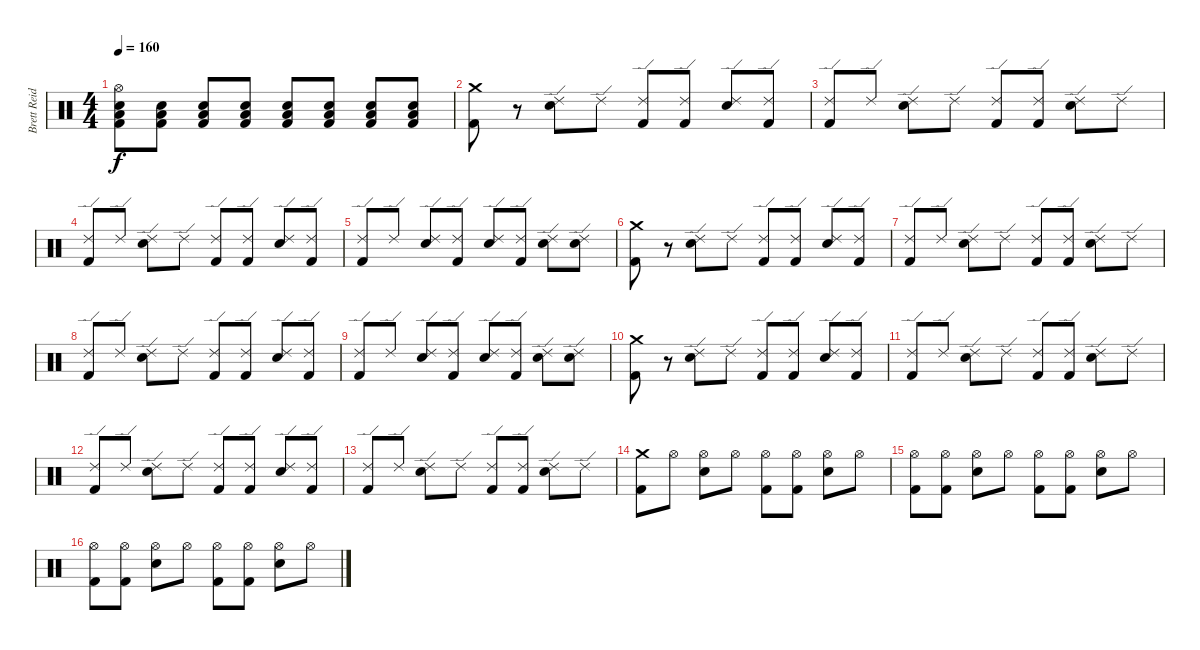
\track ("Brett Reid" "Brett Reid") {instrument percussion}
\staff {score}
\articulation defaults
\ts (4 4)
\tempo 160
\clef neutral
\ks c
("Hi-Hat (open)" "Low Floor Tom (hit)" "Snare (hit) 2" "Kick (hit) 2").8{dy f} ("Low Floor Tom (hit)" "Snare (hit) 2" "Kick (hit) 2").8 ("Low Floor Tom (hit)" "Snare (hit) 2" "Kick (hit) 2").8 ("Low Floor Tom (hit)" "Snare (hit) 2" "Kick (hit) 2").8 ("Low Floor Tom (hit)" "Snare (hit) 2" "Kick (hit) 2").8 ("Low Floor Tom (hit)" "Snare (hit) 2" "Kick (hit) 2").8 ("Low Floor Tom (hit)" "Snare (hit) 2" "Kick (hit) 2").8 ("Low Floor Tom (hit)" "Snare (hit) 2" "Kick (hit) 2").8 |
("Crash medium (hit)" "Kick (hit) 2").8 r.8 ("Ride (edge) 2" "Snare (hit) 2").8 "Ride (edge) 2".8 ("Ride (edge) 2" "Kick (hit) 2").8 ("Ride (edge) 2" "Kick (hit) 2").8 ("Ride (edge) 2" "Snare (hit) 2").8 ("Ride (edge) 2" "Kick (hit) 2").8 |
("Ride (edge) 2" "Kick (hit) 2").8 "Ride (edge) 2".8 ("Ride (edge) 2" "Snare (hit) 2").8 "Ride (edge) 2".8 ("Ride (edge) 2" "Kick (hit) 2").8 ("Ride (edge) 2" "Kick (hit) 2").8 ("Ride (edge) 2" "Snare (hit) 2").8 "Ride (edge) 2".8 |
("Ride (edge) 2" "Kick (hit) 2").8 "Ride (edge) 2".8 ("Ride (edge) 2" "Snare (hit) 2").8 "Ride (edge) 2".8 ("Ride (edge) 2" "Kick (hit) 2").8 ("Ride (edge) 2" "Kick (hit) 2").8 ("Ride (edge) 2" "Snare (hit) 2").8 ("Ride (edge) 2" "Kick (hit) 2").8 |
("Ride (edge) 2" "Kick (hit) 2").8 "Ride (edge) 2".8 ("Ride (edge) 2" "Snare (hit) 2").8 ("Ride (edge) 2" "Kick (hit) 2").8 ("Ride (edge) 2" "Snare (hit) 2").8 ("Ride (edge) 2" "Kick (hit) 2").8 ("Ride (edge) 2" "Snare (hit) 2").8 ("Ride (edge) 2" "Snare (hit) 2").8 |
("Crash medium (hit)" "Kick (hit) 2").8 r.8 ("Ride (edge) 2" "Snare (hit) 2").8 "Ride (edge) 2".8 ("Ride (edge) 2" "Kick (hit) 2").8 ("Ride (edge) 2" "Kick (hit) 2").8 ("Ride (edge) 2" "Snare (hit) 2").8 ("Ride (edge) 2" "Kick (hit) 2").8 |
("Ride (edge) 2" "Kick (hit) 2").8 "Ride (edge) 2".8 ("Ride (edge) 2" "Snare (hit) 2").8 "Ride (edge) 2".8 ("Ride (edge) 2" "Kick (hit) 2").8 ("Ride (edge) 2" "Kick (hit) 2").8 ("Ride (edge) 2" "Snare (hit) 2").8 "Ride (edge) 2".8 |
("Ride (edge) 2" "Kick (hit) 2").8 "Ride (edge) 2".8 ("Ride (edge) 2" "Snare (hit) 2").8 "Ride (edge) 2".8 ("Ride (edge) 2" "Kick (hit) 2").8 ("Ride (edge) 2" "Kick (hit) 2").8 ("Ride (edge) 2" "Snare (hit) 2").8 ("Ride (edge) 2" "Kick (hit) 2").8 |
("Ride (edge) 2" "Kick (hit) 2").8 "Ride (edge) 2".8 ("Ride (edge) 2" "Snare (hit) 2").8 ("Ride (edge) 2" "Kick (hit) 2").8 ("Ride (edge) 2" "Snare (hit) 2").8 ("Ride (edge) 2" "Kick (hit) 2").8 ("Ride (edge) 2" "Snare (hit) 2").8 ("Ride (edge) 2" "Snare (hit) 2").8 |
("Crash medium (hit)" "Kick (hit) 2").8 r.8 ("Ride (edge) 2" "Snare (hit) 2").8 "Ride (edge) 2".8 ("Ride (edge) 2" "Kick (hit) 2").8 ("Ride (edge) 2" "Kick (hit) 2").8 ("Ride (edge) 2" "Snare (hit) 2").8 ("Ride (edge) 2" "Kick (hit) 2").8 |
("Ride (edge) 2" "Kick (hit) 2").8 "Ride (edge) 2".8 ("Ride (edge) 2" "Snare (hit) 2").8 "Ride (edge) 2".8 ("Ride (edge) 2" "Kick (hit) 2").8 ("Ride (edge) 2" "Kick (hit) 2").8 ("Ride (edge) 2" "Snare (hit) 2").8 "Ride (edge) 2".8 |
("Ride (edge) 2" "Kick (hit) 2").8 "Ride (edge) 2".8 ("Ride (edge) 2" "Snare (hit) 2").8 "Ride (edge) 2".8 ("Ride (edge) 2" "Kick (hit) 2").8 ("Ride (edge) 2" "Kick (hit) 2").8 ("Ride (edge) 2" "Snare (hit) 2").8 ("Ride (edge) 2" "Kick (hit) 2").8 |
("Ride (edge) 2" "Kick (hit) 2").8 "Ride (edge) 2".8 ("Ride (edge) 2" "Snare (hit) 2").8 "Ride (edge) 2".8 ("Ride (edge) 2" "Kick (hit) 2").8 ("Ride (edge) 2" "Kick (hit) 2").8 ("Ride (edge) 2" "Snare (hit) 2").8 "Ride (edge) 2".8 |
("Crash medium (hit)" "Kick (hit) 2").8 "Hi-Hat (open)".8 ("Hi-Hat (open)" "Snare (hit) 2").8 "Hi-Hat (open)".8 ("Hi-Hat (open)" "Kick (hit) 2").8 ("Hi-Hat (open)" "Kick (hit) 2").8 ("Hi-Hat (open)" "Snare (hit) 2").8 "Hi-Hat (open)".8 |
("Hi-Hat (open)" "Kick (hit) 2").8 ("Hi-Hat (open)" "Kick (hit) 2").8 ("Hi-Hat (open)" "Snare (hit) 2").8 "Hi-Hat (open)".8 ("Hi-Hat (open)" "Kick (hit) 2").8 ("Hi-Hat (open)" "Kick (hit) 2").8 ("Hi-Hat (open)" "Snare (hit) 2").8 "Hi-Hat (open)".8 |
("Hi-Hat (open)" "Kick (hit) 2").8 ("Hi-Hat (open)" "Kick (hit) 2").8 ("Hi-Hat (open)" "Snare (hit) 2").8 "Hi-Hat (open)".8 ("Hi-Hat (open)" "Kick (hit) 2").8 ("Hi-Hat (open)" "Kick (hit) 2").8 ("Hi-Hat (open)" "Snare (hit) 2").8 "Hi-Hat (open)".8
